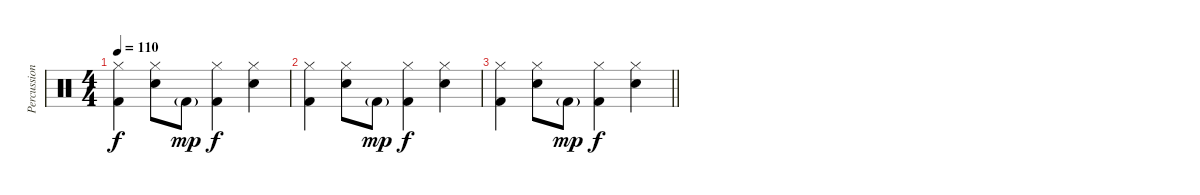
\track ("Percussion" "Percussion") {instrument percussion}
\staff {score}
\articulation defaults
\ts (4 4)
\tempo 110
\clef neutral
\ks c
("Hi-Hat (closed)" "Kick (hit) 2").4{dy f} ("Hi-Hat (closed)" "Snare (hit) 2").8 "Kick (hit) 2"{g}.8{dy mp} ("Hi-Hat (closed)" "Kick (hit) 2").4{dy f} ("Hi-Hat (closed)" "Snare (hit) 2").4 |
("Hi-Hat (closed)" "Kick (hit) 2").4 ("Hi-Hat (closed)" "Snare (hit) 2").8 "Kick (hit) 2"{g}.8{dy mp} ("Hi-Hat (closed)" "Kick (hit) 2").4{dy f} ("Hi-Hat (closed)" "Snare (hit) 2").4 |
\barLineRight lightlight
("Hi-Hat (closed)" "Kick (hit) 2").4 ("Hi-Hat (closed)" "Snare (hit) 2").8 "Kick (hit) 2"{g}.8{dy mp} ("Hi-Hat (closed)" "Kick (hit) 2").4{dy f} ("Hi-Hat (closed)" "Snare (hit) 2").4
